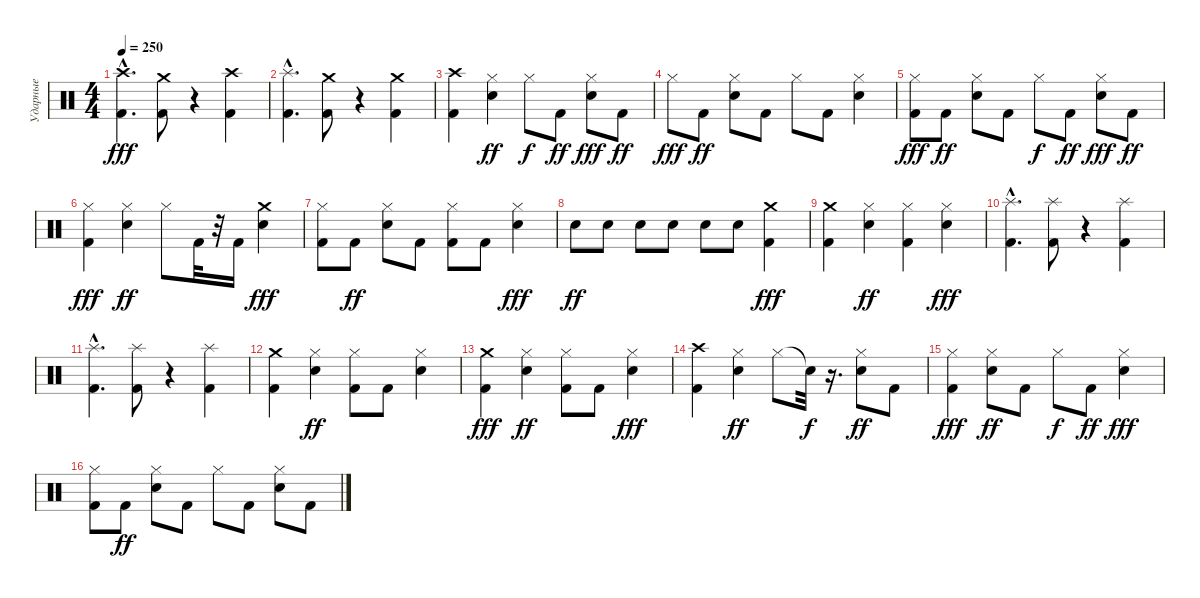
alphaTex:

\track ("Ударные" "Ударные") {instrument percussion}
\staff {score}
\articulation defaults
\ts (4 4)
\tempo 250
\clef neutral
\ks c
("Kick (hit) 2"{hac} "Crash high (hit)"{hac}).4{d dy fff} ("Kick (hit) 2" "Crash medium (hit)").8 r.4 ("Kick (hit) 2" "Crash high (hit)").4 |
("Kick (hit) 2"{hac} "Splash (hit)"{hac}).4{d} ("Kick (hit) 2" "Crash medium (hit)").8 r.4 ("Kick (hit) 2" "Crash medium (hit)").4 |
("Kick (hit) 2" "Crash high (hit)").4 ("Electric Snare (hit)" "Hi-Hat (closed)").4{dy ff} "Hi-Hat (closed)".8{dy f} "Kick (hit) 2".8{dy ff} ("Electric Snare (hit)" "Hi-Hat (closed)").8{dy fff} "Kick (hit) 2".8{dy ff} |
"Hi-Hat (closed)".8{dy fff} "Kick (hit) 2".8{dy ff} ("Electric Snare (hit)" "Hi-Hat (closed)").8 "Kick (hit) 2".8 "Hi-Hat (closed)".8 "Kick (hit) 2".8 ("Electric Snare (hit)" "Hi-Hat (closed)").4 |
("Kick (hit) 2" "Hi-Hat (closed)").8{dy fff} "Kick (hit) 2".8{dy ff} ("Electric Snare (hit)" "Hi-Hat (closed)").8 "Kick (hit) 2".8 "Hi-Hat (closed)".8{dy f} "Kick (hit) 2".8{dy ff} ("Electric Snare (hit)" "Hi-Hat (closed)").8{dy fff} "Kick (hit) 2".8{dy ff} |
("Kick (hit) 2" "Hi-Hat (closed)").4{dy fff} ("Electric Snare (hit)" "Hi-Hat (closed)").4{dy ff} "Hi-Hat (closed)".8 "Kick (hit) 2".32 r.32 "Kick (hit) 2".16 ("Electric Snare (hit)" "Crash medium (hit)").4{dy fff} |
("Kick (hit) 2" "Hi-Hat (closed)").8 "Kick (hit) 2".8{dy ff} ("Electric Snare (hit)" "Hi-Hat (closed)").8 "Kick (hit) 2".8 ("Kick (hit) 2" "Hi-Hat (closed)").8 "Kick (hit) 2".8 ("Electric Snare (hit)" "Hi-Hat (closed)").4{dy fff} |
"Electric Snare (hit)".8{dy ff} "Electric Snare (hit)".8 "Electric Snare (hit)".8 "Electric Snare (hit)".8 "Electric Snare (hit)".8 "Electric Snare (hit)".8 ("Kick (hit) 2" "Crash medium (hit)").4{dy fff} |
("Kick (hit) 2" "Crash medium (hit)").4 ("Electric Snare (hit)" "Hi-Hat (closed)").4{dy ff} ("Kick (hit) 2" "Hi-Hat (closed)").4 ("Electric Snare (hit)" "Hi-Hat (closed)").4{dy fff} |
("Kick (hit) 2"{hac} "Splash (hit)"{hac}).4{d} ("Kick (hit) 2" "Splash (hit)").8 r.4 ("Kick (hit) 2" "Splash (hit)").4 |
("Kick (hit) 2"{hac} "Splash (hit)"{hac}).4{d} ("Kick (hit) 2" "Splash (hit)").8 r.4 ("Kick (hit) 2" "Splash (hit)").4 |
("Kick (hit) 2" "Crash medium (hit)").4 ("Electric Snare (hit)" "Hi-Hat (closed)").4{dy ff} ("Kick (hit) 2" "Hi-Hat (closed)").8 "Kick (hit) 2".8 ("Electric Snare (hit)" "Hi-Hat (closed)").4 |
("Kick (hit) 2" "Crash medium (hit)").4{dy fff} ("Electric Snare (hit)" "Hi-Hat (closed)").4{dy ff} ("Kick (hit) 2" "Hi-Hat (closed)").8 "Kick (hit) 2".8 ("Electric Snare (hit)" "Hi-Hat (closed)").4{dy fff} |
("Kick (hit) 2" "Crash high (hit)").4 ("Electric Snare (hit)" "Hi-Hat (closed)").4{dy ff} "Hi-Hat (closed)".8 "Snare (hit)"{t}.32{dy f} r.16{d} ("Electric Snare (hit)" "Hi-Hat (closed)").8{dy ff} "Kick (hit) 2".8 |
("Kick (hit) 2" "Hi-Hat (closed)").4{dy fff} ("Electric Snare (hit)" "Hi-Hat (closed)").8{dy ff} "Kick (hit) 2".8 "Hi-Hat (closed)".8{dy f} "Kick (hit) 2".8{dy ff} ("Electric Snare (hit)" "Hi-Hat (closed)").4{dy fff} |
("Kick (hit) 2" "Hi-Hat (closed)").8 "Kick (hit) 2".8{dy ff} ("Electric Snare (hit)" "Hi-Hat (closed)").8 "Kick (hit) 2".8 "Hi-Hat (closed)".8 "Kick (hit) 2".8 ("Electric Snare (hit)" "Hi-Hat (closed)").8 "Kick (hit) 2".8
